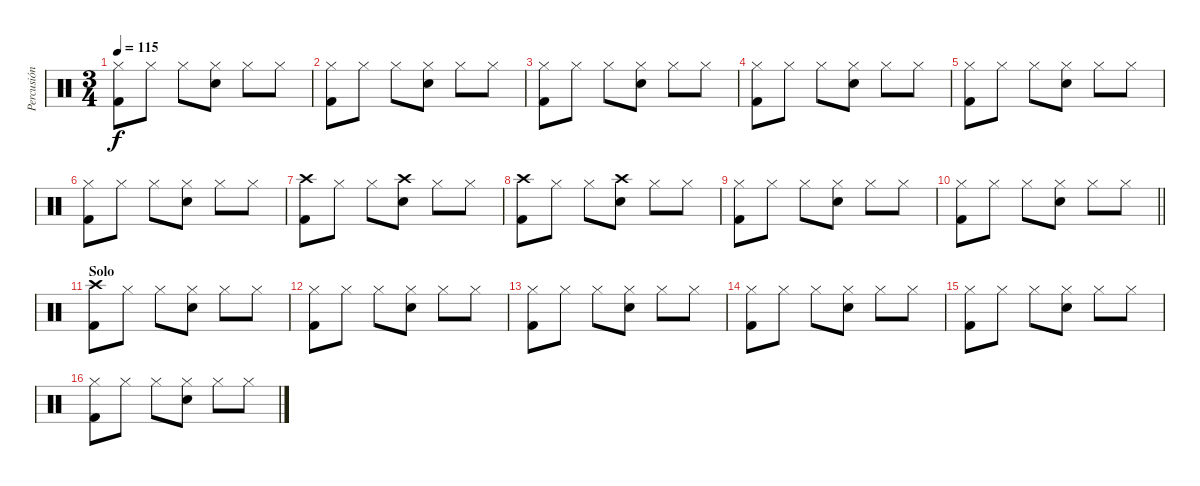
\track ("Percusión" "Percusión") {instrument percussion}
\staff {score}
\articulation defaults
\ts (3 4)
\tempo 115
\clef neutral
\ks c
("Hi-Hat (closed)" "Kick (hit) 2").8{dy f} "Hi-Hat (closed)".8 "Hi-Hat (closed)".8 ("Hi-Hat (closed)" "Electric Snare (hit)").8 "Hi-Hat (closed)".8 "Hi-Hat (closed)".8 |
("Hi-Hat (closed)" "Kick (hit) 2").8 "Hi-Hat (closed)".8 "Hi-Hat (closed)".8 ("Hi-Hat (closed)" "Electric Snare (hit)").8 "Hi-Hat (closed)".8 "Hi-Hat (closed)".8 |
("Hi-Hat (closed)" "Kick (hit) 2").8 "Hi-Hat (closed)".8 "Hi-Hat (closed)".8 ("Hi-Hat (closed)" "Electric Snare (hit)").8 "Hi-Hat (closed)".8 "Hi-Hat (closed)".8 |
("Hi-Hat (closed)" "Kick (hit) 2").8 "Hi-Hat (closed)".8 "Hi-Hat (closed)".8 ("Hi-Hat (closed)" "Electric Snare (hit)").8 "Hi-Hat (closed)".8 "Hi-Hat (closed)".8 |
("Hi-Hat (closed)" "Kick (hit) 2").8 "Hi-Hat (closed)".8 "Hi-Hat (closed)".8 ("Hi-Hat (closed)" "Electric Snare (hit)").8 "Hi-Hat (closed)".8 "Hi-Hat (closed)".8 |
("Hi-Hat (closed)" "Kick (hit) 2").8 "Hi-Hat (closed)".8 "Hi-Hat (closed)".8 ("Hi-Hat (closed)" "Electric Snare (hit)").8 "Hi-Hat (closed)".8 "Hi-Hat (closed)".8 |
("Crash high (hit)" "Kick (hit) 2").8 "Hi-Hat (closed)".8 "Hi-Hat (closed)".8 ("Crash high (hit)" "Electric Snare (hit)").8 "Hi-Hat (closed)".8 "Hi-Hat (closed)".8 |
("Crash high (hit)" "Kick (hit) 2").8 "Hi-Hat (closed)".8 "Hi-Hat (closed)".8 ("Crash high (hit)" "Electric Snare (hit)").8 "Hi-Hat (closed)".8 "Hi-Hat (closed)".8 |
("Hi-Hat (closed)" "Kick (hit) 2").8 "Hi-Hat (closed)".8 "Hi-Hat (closed)".8 ("Hi-Hat (closed)" "Electric Snare (hit)").8 "Hi-Hat (closed)".8 "Hi-Hat (closed)".8 |
\barLineRight lightlight
("Hi-Hat (closed)" "Kick (hit) 2").8 "Hi-Hat (closed)".8 "Hi-Hat (closed)".8 ("Hi-Hat (closed)" "Electric Snare (hit)").8 "Hi-Hat (closed)".8 "Hi-Hat (closed)".8 |
\section ("" "Solo")
("Crash high (hit)" "Kick (hit) 2").8 "Hi-Hat (closed)".8 "Hi-Hat (closed)".8 ("Hi-Hat (closed)" "Electric Snare (hit)").8 "Hi-Hat (closed)".8 "Hi-Hat (closed)".8 |
("Hi-Hat (closed)" "Kick (hit) 2").8 "Hi-Hat (closed)".8 "Hi-Hat (closed)".8 ("Hi-Hat (closed)" "Electric Snare (hit)").8 "Hi-Hat (closed)".8 "Hi-Hat (closed)".8 |
("Hi-Hat (closed)" "Kick (hit) 2").8 "Hi-Hat (closed)".8 "Hi-Hat (closed)".8 ("Hi-Hat (closed)" "Electric Snare (hit)").8 "Hi-Hat (closed)".8 "Hi-Hat (closed)".8 |
("Hi-Hat (closed)" "Kick (hit) 2").8 "Hi-Hat (closed)".8 "Hi-Hat (closed)".8 ("Hi-Hat (closed)" "Electric Snare (hit)").8 "Hi-Hat (closed)".8 "Hi-Hat (closed)".8 |
("Hi-Hat (closed)" "Kick (hit) 2").8 "Hi-Hat (closed)".8 "Hi-Hat (closed)".8 ("Hi-Hat (closed)" "Electric Snare (hit)").8 "Hi-Hat (closed)".8 "Hi-Hat (closed)".8 |
("Hi-Hat (closed)" "Kick (hit) 2").8 "Hi-Hat (closed)".8 "Hi-Hat (closed)".8 ("Hi-Hat (closed)" "Electric Snare (hit)").8 "Hi-Hat (closed)".8 "Hi-Hat (closed)".8
